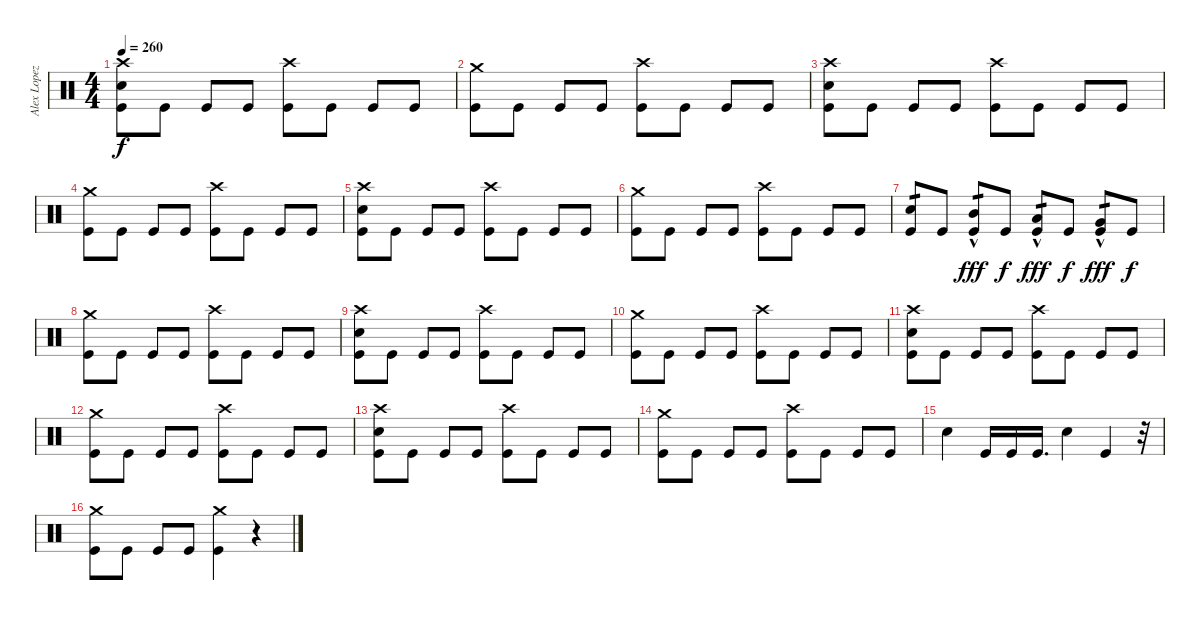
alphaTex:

\track ("Alex Lopez" "Alex Lopez") {instrument percussion}
\staff {score}
\articulation defaults
\ts (4 4)
\tempo 260
\clef neutral
\ks c
("Crash high (hit)" "Electric Snare (hit)" "Kick (hit)").8{dy f} "Kick (hit)".8 "Kick (hit)".8 "Kick (hit)".8 ("Crash high (hit)" "Kick (hit)").8 "Kick (hit)".8 "Kick (hit)".8 "Kick (hit)".8 |
("Crash medium (hit)" "Kick (hit)").8 "Kick (hit)".8 "Kick (hit)".8 "Kick (hit)".8 ("Crash high (hit)" "Kick (hit)").8 "Kick (hit)".8 "Kick (hit)".8 "Kick (hit)".8 |
("Crash high (hit)" "Electric Snare (hit)" "Kick (hit)").8 "Kick (hit)".8 "Kick (hit)".8 "Kick (hit)".8 ("Crash high (hit)" "Kick (hit)").8 "Kick (hit)".8 "Kick (hit)".8 "Kick (hit)".8 |
("Crash medium (hit)" "Kick (hit)").8 "Kick (hit)".8 "Kick (hit)".8 "Kick (hit)".8 ("Crash high (hit)" "Kick (hit)").8 "Kick (hit)".8 "Kick (hit)".8 "Kick (hit)".8 |
("Crash high (hit)" "Electric Snare (hit)" "Kick (hit)").8 "Kick (hit)".8 "Kick (hit)".8 "Kick (hit)".8 ("Crash high (hit)" "Kick (hit)").8 "Kick (hit)".8 "Kick (hit)".8 "Kick (hit)".8 |
("Crash medium (hit)" "Kick (hit)").8 "Kick (hit)".8 "Kick (hit)".8 "Kick (hit)".8 ("Crash high (hit)" "Kick (hit)").8 "Kick (hit)".8 "Kick (hit)".8 "Kick (hit)".8 |
("Electric Snare (hit)" "Kick (hit)").8{tp 1} "Kick (hit)".8 ("Mid Tom (hit)"{hac} "Kick (hit)").8{tp 1 dy fff} "Kick (hit)".8{dy f} ("Low Tom (hit)"{hac} "Kick (hit)").8{tp 1 dy fff} "Kick (hit)".8{dy f} ("Very Low Tom (hit)"{hac} "Kick (hit)").8{tp 1 dy fff} "Kick (hit)".8{dy f} |
("Crash medium (hit)" "Kick (hit)").8 "Kick (hit)".8 "Kick (hit)".8 "Kick (hit)".8 ("Crash high (hit)" "Kick (hit)").8 "Kick (hit)".8 "Kick (hit)".8 "Kick (hit)".8 |
("Crash high (hit)" "Electric Snare (hit)" "Kick (hit)").8 "Kick (hit)".8 "Kick (hit)".8 "Kick (hit)".8 ("Crash high (hit)" "Kick (hit)").8 "Kick (hit)".8 "Kick (hit)".8 "Kick (hit)".8 |
("Crash medium (hit)" "Kick (hit)").8 "Kick (hit)".8 "Kick (hit)".8 "Kick (hit)".8 ("Crash high (hit)" "Kick (hit)").8 "Kick (hit)".8 "Kick (hit)".8 "Kick (hit)".8 |
("Crash high (hit)" "Electric Snare (hit)" "Kick (hit)").8 "Kick (hit)".8 "Kick (hit)".8 "Kick (hit)".8 ("Crash high (hit)" "Kick (hit)").8 "Kick (hit)".8 "Kick (hit)".8 "Kick (hit)".8 |
("Crash medium (hit)" "Kick (hit)").8 "Kick (hit)".8 "Kick (hit)".8 "Kick (hit)".8 ("Crash high (hit)" "Kick (hit)").8 "Kick (hit)".8 "Kick (hit)".8 "Kick (hit)".8 |
("Crash high (hit)" "Electric Snare (hit)" "Kick (hit)").8 "Kick (hit)".8 "Kick (hit)".8 "Kick (hit)".8 ("Crash high (hit)" "Kick (hit)").8 "Kick (hit)".8 "Kick (hit)".8 "Kick (hit)".8 |
("Crash medium (hit)" "Kick (hit)").8 "Kick (hit)".8 "Kick (hit)".8 "Kick (hit)".8 ("Crash high (hit)" "Kick (hit)").8 "Kick (hit)".8 "Kick (hit)".8 "Kick (hit)".8 |
"Electric Snare (hit)".4 "Kick (hit)".16 "Kick (hit)".16 "Kick (hit)".16{d} "Electric Snare (hit)".4 "Kick (hit)".4 r.32 |
("Crash medium (hit)" "Kick (hit)").8 "Kick (hit)".8 "Kick (hit)".8 "Kick (hit)".8 ("Crash medium (hit)" "Kick (hit)").4 r.4
